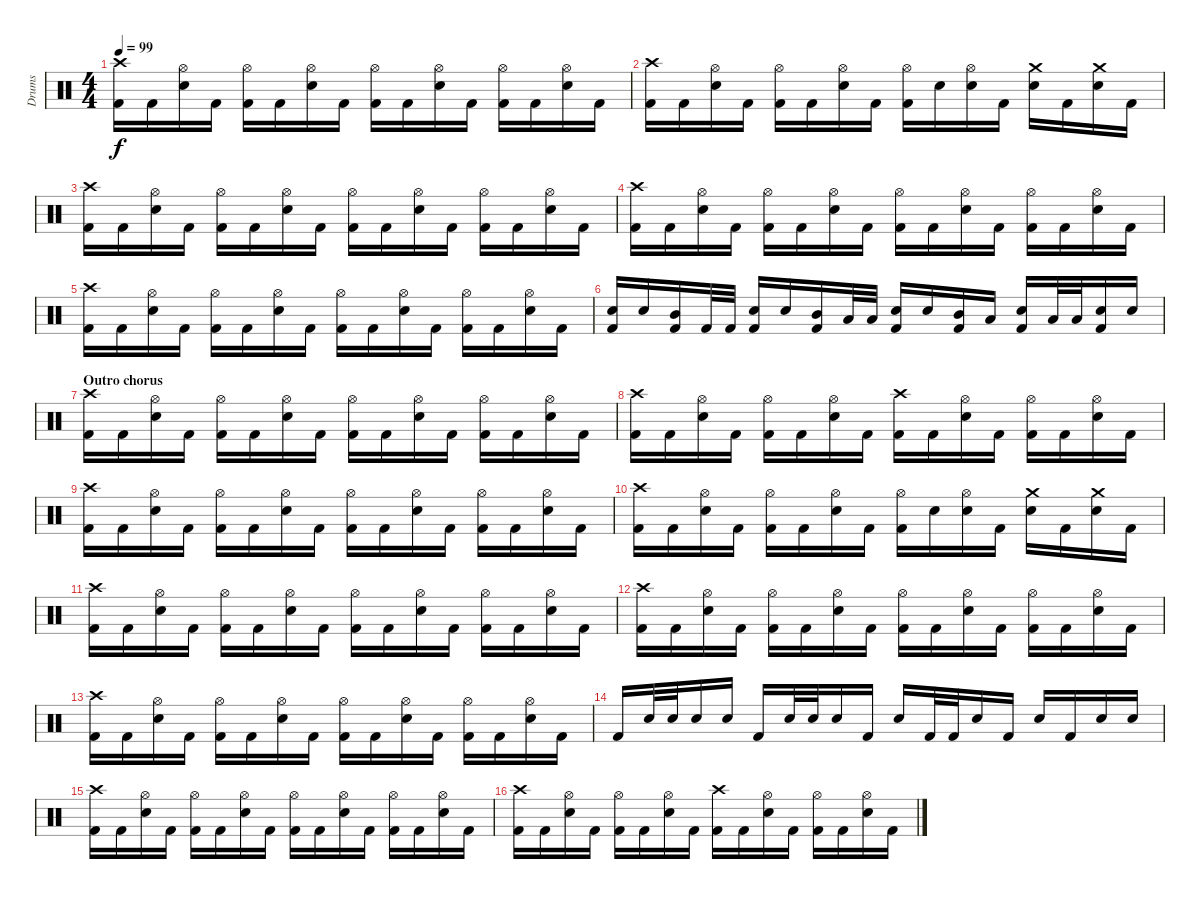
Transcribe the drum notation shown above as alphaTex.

\track ("Drums" "Drums") {instrument percussion}
\staff {score}
\articulation defaults
\ts (4 4)
\tempo 99
\clef neutral
\ks c
("Kick (hit) 2" "Crash high (hit)").16{dy f} "Kick (hit) 2".16 ("Electric Snare (hit)" "Hi-Hat (open)").16 "Kick (hit) 2".16 ("Kick (hit) 2" "Hi-Hat (open)").16 "Kick (hit) 2".16 ("Electric Snare (hit)" "Hi-Hat (open)").16 "Kick (hit) 2".16 ("Kick (hit) 2" "Hi-Hat (open)").16 "Kick (hit) 2".16 ("Electric Snare (hit)" "Hi-Hat (open)").16 "Kick (hit) 2".16 ("Kick (hit) 2" "Hi-Hat (open)").16 "Kick (hit) 2".16 ("Electric Snare (hit)" "Hi-Hat (open)").16 "Kick (hit) 2".16 |
("Kick (hit) 2" "Crash high (hit)").16 "Kick (hit) 2".16 ("Electric Snare (hit)" "Hi-Hat (open)").16 "Kick (hit) 2".16 ("Kick (hit) 2" "Hi-Hat (open)").16 "Kick (hit) 2".16 ("Electric Snare (hit)" "Hi-Hat (open)").16 "Kick (hit) 2".16 ("Kick (hit) 2" "Hi-Hat (open)").16 "Electric Snare (hit)".16 ("Electric Snare (hit)" "Hi-Hat (open)").16 "Kick (hit) 2".16 ("Electric Snare (hit)" "Crash medium (hit)").16 "Kick (hit) 2".16 ("Electric Snare (hit)" "Crash medium (hit)").16 "Kick (hit) 2".16 |
("Kick (hit) 2" "Crash high (hit)").16 "Kick (hit) 2".16 ("Electric Snare (hit)" "Hi-Hat (open)").16 "Kick (hit) 2".16 ("Kick (hit) 2" "Hi-Hat (open)").16 "Kick (hit) 2".16 ("Electric Snare (hit)" "Hi-Hat (open)").16 "Kick (hit) 2".16 ("Kick (hit) 2" "Hi-Hat (open)").16 "Kick (hit) 2".16 ("Electric Snare (hit)" "Hi-Hat (open)").16 "Kick (hit) 2".16 ("Kick (hit) 2" "Hi-Hat (open)").16 "Kick (hit) 2".16 ("Electric Snare (hit)" "Hi-Hat (open)").16 "Kick (hit) 2".16 |
("Kick (hit) 2" "Crash high (hit)").16 "Kick (hit) 2".16 ("Electric Snare (hit)" "Hi-Hat (open)").16 "Kick (hit) 2".16 ("Kick (hit) 2" "Hi-Hat (open)").16 "Kick (hit) 2".16 ("Electric Snare (hit)" "Hi-Hat (open)").16 "Kick (hit) 2".16 ("Kick (hit) 2" "Hi-Hat (open)").16 "Kick (hit) 2".16 ("Electric Snare (hit)" "Hi-Hat (open)").16 "Kick (hit) 2".16 ("Kick (hit) 2" "Hi-Hat (open)").16 "Kick (hit) 2".16 ("Electric Snare (hit)" "Hi-Hat (open)").16 "Kick (hit) 2".16 |
("Kick (hit) 2" "Crash high (hit)").16 "Kick (hit) 2".16 ("Electric Snare (hit)" "Hi-Hat (open)").16 "Kick (hit) 2".16 ("Kick (hit) 2" "Hi-Hat (open)").16 "Kick (hit) 2".16 ("Electric Snare (hit)" "Hi-Hat (open)").16 "Kick (hit) 2".16 ("Kick (hit) 2" "Hi-Hat (open)").16 "Kick (hit) 2".16 ("Electric Snare (hit)" "Hi-Hat (open)").16 "Kick (hit) 2".16 ("Kick (hit) 2" "Hi-Hat (open)").16 "Kick (hit) 2".16 ("Electric Snare (hit)" "Hi-Hat (open)").16 "Kick (hit) 2".16 |
("Electric Snare (hit)" "Kick (hit) 2").16 "Electric Snare (hit)".16 ("Mid Tom (hit)" "Kick (hit) 2").16 "Kick (hit) 2".32 "Kick (hit) 2".32 ("Electric Snare (hit)" "Kick (hit) 2").16 "Electric Snare (hit)".16 ("Mid Tom (hit)" "Kick (hit) 2").16 "Low Tom (hit)".32 "Low Tom (hit)".32 ("Electric Snare (hit)" "Kick (hit) 2").16 "Electric Snare (hit)".16 ("Mid Tom (hit)" "Kick (hit) 2").16 "Low Tom (hit)".16 ("Electric Snare (hit)" "Kick (hit) 2").16 "Low Tom (hit)".32 "Low Tom (hit)".32 ("Electric Snare (hit)" "Kick (hit) 2").16 "Electric Snare (hit)".16 |
\section ("" "Outro chorus")
("Kick (hit) 2" "Crash high (hit)").16{volume 11} "Kick (hit) 2".16 ("Electric Snare (hit)" "Hi-Hat (open)").16 "Kick (hit) 2".16 ("Kick (hit) 2" "Hi-Hat (open)").16 "Kick (hit) 2".16 ("Electric Snare (hit)" "Hi-Hat (open)").16 "Kick (hit) 2".16 ("Kick (hit) 2" "Hi-Hat (open)").16 "Kick (hit) 2".16 ("Electric Snare (hit)" "Hi-Hat (open)").16 "Kick (hit) 2".16 ("Kick (hit) 2" "Hi-Hat (open)").16 "Kick (hit) 2".16 ("Electric Snare (hit)" "Hi-Hat (open)").16 "Kick (hit) 2".16 |
("Kick (hit) 2" "Crash high (hit)").16 "Kick (hit) 2".16 ("Electric Snare (hit)" "Hi-Hat (open)").16 "Kick (hit) 2".16 ("Kick (hit) 2" "Hi-Hat (open)").16 "Kick (hit) 2".16 ("Electric Snare (hit)" "Hi-Hat (open)").16 "Kick (hit) 2".16 ("Kick (hit) 2" "Crash high (hit)").16 "Kick (hit) 2".16 ("Electric Snare (hit)" "Hi-Hat (open)").16 "Kick (hit) 2".16 ("Kick (hit) 2" "Hi-Hat (open)").16 "Kick (hit) 2".16 ("Electric Snare (hit)" "Hi-Hat (open)").16 "Kick (hit) 2".16 |
("Kick (hit) 2" "Crash high (hit)").16{volume 9} "Kick (hit) 2".16 ("Electric Snare (hit)" "Hi-Hat (open)").16 "Kick (hit) 2".16 ("Kick (hit) 2" "Hi-Hat (open)").16 "Kick (hit) 2".16 ("Electric Snare (hit)" "Hi-Hat (open)").16 "Kick (hit) 2".16 ("Kick (hit) 2" "Hi-Hat (open)").16 "Kick (hit) 2".16 ("Electric Snare (hit)" "Hi-Hat (open)").16 "Kick (hit) 2".16 ("Kick (hit) 2" "Hi-Hat (open)").16 "Kick (hit) 2".16 ("Electric Snare (hit)" "Hi-Hat (open)").16 "Kick (hit) 2".16 |
("Kick (hit) 2" "Crash high (hit)").16 "Kick (hit) 2".16 ("Electric Snare (hit)" "Hi-Hat (open)").16 "Kick (hit) 2".16 ("Kick (hit) 2" "Hi-Hat (open)").16 "Kick (hit) 2".16 ("Electric Snare (hit)" "Hi-Hat (open)").16 "Kick (hit) 2".16 ("Kick (hit) 2" "Hi-Hat (open)").16 "Electric Snare (hit)".16 ("Electric Snare (hit)" "Hi-Hat (open)").16 "Kick (hit) 2".16 ("Electric Snare (hit)" "Crash medium (hit)").16 "Kick (hit) 2".16 ("Electric Snare (hit)" "Crash medium (hit)").16 "Kick (hit) 2".16 |
("Kick (hit) 2" "Crash high (hit)").16{volume 7} "Kick (hit) 2".16 ("Electric Snare (hit)" "Hi-Hat (open)").16 "Kick (hit) 2".16 ("Kick (hit) 2" "Hi-Hat (open)").16 "Kick (hit) 2".16 ("Electric Snare (hit)" "Hi-Hat (open)").16 "Kick (hit) 2".16 ("Kick (hit) 2" "Hi-Hat (open)").16 "Kick (hit) 2".16 ("Electric Snare (hit)" "Hi-Hat (open)").16 "Kick (hit) 2".16 ("Kick (hit) 2" "Hi-Hat (open)").16 "Kick (hit) 2".16 ("Electric Snare (hit)" "Hi-Hat (open)").16 "Kick (hit) 2".16 |
("Kick (hit) 2" "Crash high (hit)").16 "Kick (hit) 2".16 ("Electric Snare (hit)" "Hi-Hat (open)").16 "Kick (hit) 2".16 ("Kick (hit) 2" "Hi-Hat (open)").16 "Kick (hit) 2".16 ("Electric Snare (hit)" "Hi-Hat (open)").16 "Kick (hit) 2".16 ("Kick (hit) 2" "Hi-Hat (open)").16 "Kick (hit) 2".16 ("Electric Snare (hit)" "Hi-Hat (open)").16 "Kick (hit) 2".16 ("Kick (hit) 2" "Hi-Hat (open)").16 "Kick (hit) 2".16 ("Electric Snare (hit)" "Hi-Hat (open)").16 "Kick (hit) 2".16 |
("Kick (hit) 2" "Crash high (hit)").16{volume 5} "Kick (hit) 2".16 ("Electric Snare (hit)" "Hi-Hat (open)").16 "Kick (hit) 2".16 ("Kick (hit) 2" "Hi-Hat (open)").16 "Kick (hit) 2".16 ("Electric Snare (hit)" "Hi-Hat (open)").16 "Kick (hit) 2".16 ("Kick (hit) 2" "Hi-Hat (open)").16 "Kick (hit) 2".16 ("Electric Snare (hit)" "Hi-Hat (open)").16 "Kick (hit) 2".16 ("Kick (hit) 2" "Hi-Hat (open)").16 "Kick (hit) 2".16 ("Electric Snare (hit)" "Hi-Hat (open)").16 "Kick (hit) 2".16 |
"Kick (hit) 2".16 "Electric Snare (hit)".32 "Electric Snare (hit)".32 "Electric Snare (hit)".16 "Electric Snare (hit)".16 "Kick (hit) 2".16 "Electric Snare (hit)".32 "Electric Snare (hit)".32 "Electric Snare (hit)".16 "Kick (hit) 2".16 "Electric Snare (hit)".16 "Kick (hit) 2".32 "Kick (hit) 2".32 "Electric Snare (hit)".16 "Kick (hit) 2".16 "Electric Snare (hit)".16 "Kick (hit) 2".16 "Electric Snare (hit)".16 "Electric Snare (hit)".16 |
("Kick (hit) 2" "Crash high (hit)").16{volume 3} "Kick (hit) 2".16 ("Electric Snare (hit)" "Hi-Hat (open)").16 "Kick (hit) 2".16 ("Kick (hit) 2" "Hi-Hat (open)").16 "Kick (hit) 2".16 ("Electric Snare (hit)" "Hi-Hat (open)").16 "Kick (hit) 2".16 ("Kick (hit) 2" "Hi-Hat (open)").16 "Kick (hit) 2".16 ("Electric Snare (hit)" "Hi-Hat (open)").16 "Kick (hit) 2".16 ("Kick (hit) 2" "Hi-Hat (open)").16 "Kick (hit) 2".16 ("Electric Snare (hit)" "Hi-Hat (open)").16 "Kick (hit) 2".16 |
("Kick (hit) 2" "Crash high (hit)").16 "Kick (hit) 2".16 ("Electric Snare (hit)" "Hi-Hat (open)").16 "Kick (hit) 2".16 ("Kick (hit) 2" "Hi-Hat (open)").16 "Kick (hit) 2".16 ("Electric Snare (hit)" "Hi-Hat (open)").16 "Kick (hit) 2".16 ("Kick (hit) 2" "Crash high (hit)").16 "Kick (hit) 2".16 ("Electric Snare (hit)" "Hi-Hat (open)").16 "Kick (hit) 2".16 ("Kick (hit) 2" "Hi-Hat (open)").16 "Kick (hit) 2".16 ("Electric Snare (hit)" "Hi-Hat (open)").16 "Kick (hit) 2".16
